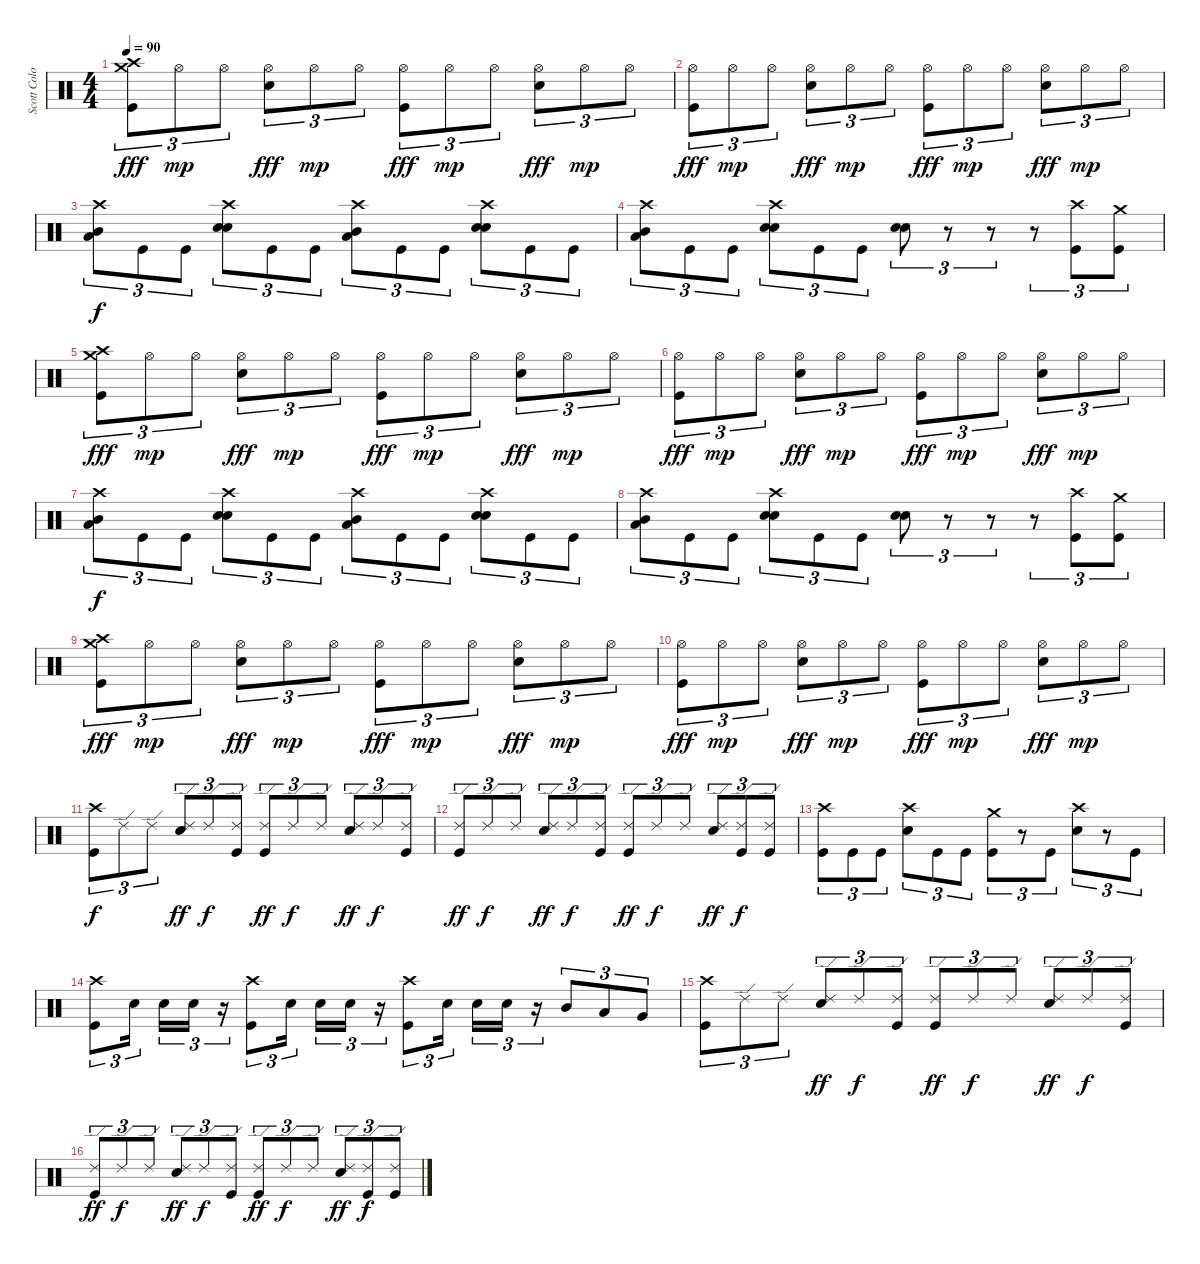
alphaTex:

\track ("Scott Colombus" "Scott Colo") {instrument percussion}
\staff {score}
\articulation defaults
\ts (4 4)
\tempo 90
\clef neutral
\ks c
("Crash high (hit)" "Crash medium (hit)" "Kick (hit)").8{tu (3 2) dy fff} "Hi-Hat (open)".8{tu (3 2) dy mp} "Hi-Hat (open)".8{tu (3 2)} ("Hi-Hat (open)" "Snare (hit) 2").8{tu (3 2) dy fff} "Hi-Hat (open)".8{tu (3 2) dy mp} "Hi-Hat (open)".8{tu (3 2)} ("Hi-Hat (open)" "Kick (hit)").8{tu (3 2) dy fff} "Hi-Hat (open)".8{tu (3 2) dy mp} "Hi-Hat (open)".8{tu (3 2)} ("Hi-Hat (open)" "Snare (hit) 2").8{tu (3 2) dy fff} "Hi-Hat (open)".8{tu (3 2) dy mp} "Hi-Hat (open)".8{tu (3 2)} |
("Hi-Hat (open)" "Kick (hit)").8{tu (3 2) dy fff} "Hi-Hat (open)".8{tu (3 2) dy mp} "Hi-Hat (open)".8{tu (3 2)} ("Hi-Hat (open)" "Snare (hit) 2").8{tu (3 2) dy fff} "Hi-Hat (open)".8{tu (3 2) dy mp} "Hi-Hat (open)".8{tu (3 2)} ("Hi-Hat (open)" "Kick (hit)").8{tu (3 2) dy fff} "Hi-Hat (open)".8{tu (3 2) dy mp} "Hi-Hat (open)".8{tu (3 2)} ("Hi-Hat (open)" "Snare (hit) 2").8{tu (3 2) dy fff} "Hi-Hat (open)".8{tu (3 2) dy mp} "Hi-Hat (open)".8{tu (3 2)} |
("Crash high (hit)" "Low Tom (hit)" "Mid Tom (hit)").8{tu (3 2) dy f} "Kick (hit)".8{tu (3 2)} "Kick (hit)".8{tu (3 2)} ("Crash high (hit)" "Snare (hit) 2" "Snare (hit) 2").8{tu (3 2)} "Kick (hit)".8{tu (3 2)} "Kick (hit)".8{tu (3 2)} ("Crash high (hit)" "Mid Tom (hit)" "Low Tom (hit)").8{tu (3 2)} "Kick (hit)".8{tu (3 2)} "Kick (hit)".8{tu (3 2)} ("Crash high (hit)" "Snare (hit) 2" "Snare (hit) 2").8{tu (3 2)} "Kick (hit)".8{tu (3 2)} "Kick (hit)".8{tu (3 2)} |
("Crash high (hit)" "Low Tom (hit)" "Mid Tom (hit)").8{tu (3 2)} "Kick (hit)".8{tu (3 2)} "Kick (hit)".8{tu (3 2)} ("Crash high (hit)" "Snare (hit) 2" "Snare (hit) 2").8{tu (3 2)} "Kick (hit)".8{tu (3 2)} "Kick (hit)".8{tu (3 2)} ("Snare (hit) 2" "Snare (hit) 2").8{tu (3 2)} r.8{tu (3 2)} r.8{tu (3 2)} r.8{tu (3 2)} ("Crash high (hit)" "Kick (hit)").8{tu (3 2)} ("Crash medium (hit)" "Kick (hit)").8{tu (3 2)} |
("Crash high (hit)" "Crash medium (hit)" "Kick (hit)").8{tu (3 2) dy fff} "Hi-Hat (open)".8{tu (3 2) dy mp} "Hi-Hat (open)".8{tu (3 2)} ("Hi-Hat (open)" "Snare (hit) 2").8{tu (3 2) dy fff} "Hi-Hat (open)".8{tu (3 2) dy mp} "Hi-Hat (open)".8{tu (3 2)} ("Hi-Hat (open)" "Kick (hit)").8{tu (3 2) dy fff} "Hi-Hat (open)".8{tu (3 2) dy mp} "Hi-Hat (open)".8{tu (3 2)} ("Hi-Hat (open)" "Snare (hit) 2").8{tu (3 2) dy fff} "Hi-Hat (open)".8{tu (3 2) dy mp} "Hi-Hat (open)".8{tu (3 2)} |
("Hi-Hat (open)" "Kick (hit)").8{tu (3 2) dy fff} "Hi-Hat (open)".8{tu (3 2) dy mp} "Hi-Hat (open)".8{tu (3 2)} ("Hi-Hat (open)" "Snare (hit) 2").8{tu (3 2) dy fff} "Hi-Hat (open)".8{tu (3 2) dy mp} "Hi-Hat (open)".8{tu (3 2)} ("Hi-Hat (open)" "Kick (hit)").8{tu (3 2) dy fff} "Hi-Hat (open)".8{tu (3 2) dy mp} "Hi-Hat (open)".8{tu (3 2)} ("Hi-Hat (open)" "Snare (hit) 2").8{tu (3 2) dy fff} "Hi-Hat (open)".8{tu (3 2) dy mp} "Hi-Hat (open)".8{tu (3 2)} |
("Crash high (hit)" "Low Tom (hit)" "Mid Tom (hit)").8{tu (3 2) dy f} "Kick (hit)".8{tu (3 2)} "Kick (hit)".8{tu (3 2)} ("Crash high (hit)" "Snare (hit) 2" "Snare (hit) 2").8{tu (3 2)} "Kick (hit)".8{tu (3 2)} "Kick (hit)".8{tu (3 2)} ("Crash high (hit)" "Mid Tom (hit)" "Low Tom (hit)").8{tu (3 2)} "Kick (hit)".8{tu (3 2)} "Kick (hit)".8{tu (3 2)} ("Crash high (hit)" "Snare (hit) 2" "Snare (hit) 2").8{tu (3 2)} "Kick (hit)".8{tu (3 2)} "Kick (hit)".8{tu (3 2)} |
("Crash high (hit)" "Low Tom (hit)" "Mid Tom (hit)").8{tu (3 2)} "Kick (hit)".8{tu (3 2)} "Kick (hit)".8{tu (3 2)} ("Crash high (hit)" "Snare (hit) 2" "Snare (hit) 2").8{tu (3 2)} "Kick (hit)".8{tu (3 2)} "Kick (hit)".8{tu (3 2)} ("Snare (hit) 2" "Snare (hit) 2").8{tu (3 2)} r.8{tu (3 2)} r.8{tu (3 2)} r.8{tu (3 2)} ("Crash high (hit)" "Kick (hit)").8{tu (3 2)} ("Crash medium (hit)" "Kick (hit)").8{tu (3 2)} |
("Crash high (hit)" "Crash medium (hit)" "Kick (hit)").8{tu (3 2) dy fff} "Hi-Hat (open)".8{tu (3 2) dy mp} "Hi-Hat (open)".8{tu (3 2)} ("Hi-Hat (open)" "Snare (hit) 2").8{tu (3 2) dy fff} "Hi-Hat (open)".8{tu (3 2) dy mp} "Hi-Hat (open)".8{tu (3 2)} ("Hi-Hat (open)" "Kick (hit)").8{tu (3 2) dy fff} "Hi-Hat (open)".8{tu (3 2) dy mp} "Hi-Hat (open)".8{tu (3 2)} ("Hi-Hat (open)" "Snare (hit) 2").8{tu (3 2) dy fff} "Hi-Hat (open)".8{tu (3 2) dy mp} "Hi-Hat (open)".8{tu (3 2)} |
("Hi-Hat (open)" "Kick (hit)").8{tu (3 2) dy fff} "Hi-Hat (open)".8{tu (3 2) dy mp} "Hi-Hat (open)".8{tu (3 2)} ("Hi-Hat (open)" "Snare (hit) 2").8{tu (3 2) dy fff} "Hi-Hat (open)".8{tu (3 2) dy mp} "Hi-Hat (open)".8{tu (3 2)} ("Hi-Hat (open)" "Kick (hit)").8{tu (3 2) dy fff} "Hi-Hat (open)".8{tu (3 2) dy mp} "Hi-Hat (open)".8{tu (3 2)} ("Hi-Hat (open)" "Snare (hit) 2").8{tu (3 2) dy fff} "Hi-Hat (open)".8{tu (3 2) dy mp} "Hi-Hat (open)".8{tu (3 2)} |
("Crash high (hit)" "Kick (hit)").8{tu (3 2) dy f} "Ride (edge) 2".8{tu (3 2)} "Ride (edge) 2".8{tu (3 2)} ("Ride (edge) 2" "Snare (hit) 2").8{tu (3 2) dy ff} "Ride (edge) 2".8{tu (3 2) dy f} ("Ride (edge) 2" "Kick (hit)").8{tu (3 2)} ("Ride (edge) 2" "Kick (hit)").8{tu (3 2) dy ff} "Ride (edge) 2".8{tu (3 2) dy f} "Ride (edge) 2".8{tu (3 2)} ("Ride (edge) 2" "Snare (hit) 2").8{tu (3 2) dy ff} "Ride (edge) 2".8{tu (3 2) dy f} ("Ride (edge) 2" "Kick (hit)").8{tu (3 2)} |
("Ride (edge) 2" "Kick (hit)").8{tu (3 2) dy ff} "Ride (edge) 2".8{tu (3 2) dy f} "Ride (edge) 2".8{tu (3 2)} ("Ride (edge) 2" "Snare (hit) 2").8{tu (3 2) dy ff} "Ride (edge) 2".8{tu (3 2) dy f} ("Ride (edge) 2" "Kick (hit)").8{tu (3 2)} ("Ride (edge) 2" "Kick (hit)").8{tu (3 2) dy ff} "Ride (edge) 2".8{tu (3 2) dy f} "Ride (edge) 2".8{tu (3 2)} ("Ride (edge) 2" "Snare (hit) 2").8{tu (3 2) dy ff} ("Ride (edge) 2" "Kick (hit)").8{tu (3 2) dy f} ("Ride (edge) 2" "Kick (hit)").8{tu (3 2)} |
("Crash high (hit)" "Kick (hit)").8{tu (3 2)} "Kick (hit)".8{tu (3 2)} "Kick (hit)".8{tu (3 2)} ("Crash high (hit)" "Snare (hit) 2").8{tu (3 2)} "Kick (hit)".8{tu (3 2)} "Kick (hit)".8{tu (3 2)} ("Crash medium (hit)" "Kick (hit)").8{tu (3 2)} r.8{tu (3 2)} "Kick (hit)".8{tu (3 2)} ("Crash high (hit)" "Snare (hit) 2").8{tu (3 2)} r.8{tu (3 2)} "Kick (hit)".8{tu (3 2)} |
("Crash high (hit)" "Kick (hit)").8{tu (3 2)} "Snare (hit) 2".16{tu (3 2)} "Snare (hit) 2".16{tu (3 2)} "Snare (hit) 2".16{tu (3 2)} r.16{tu (3 2)} ("Crash high (hit)" "Kick (hit)").8{tu (3 2)} "Snare (hit) 2".16{tu (3 2)} "Snare (hit) 2".16{tu (3 2)} "Snare (hit) 2".16{tu (3 2)} r.16{tu (3 2)} ("Crash high (hit)" "Kick (hit)").8{tu (3 2)} "Snare (hit) 2".16{tu (3 2)} "Snare (hit) 2".16{tu (3 2)} "Snare (hit) 2".16{tu (3 2)} r.16{tu (3 2)} "Mid Tom (hit)".8{tu (3 2)} "Low Tom (hit)".8{tu (3 2)} "Very Low Tom (hit)".8{tu (3 2)} |
("Crash high (hit)" "Kick (hit)").8{tu (3 2)} "Ride (edge) 2".8{tu (3 2)} "Ride (edge) 2".8{tu (3 2)} ("Ride (edge) 2" "Snare (hit) 2").8{tu (3 2) dy ff} "Ride (edge) 2".8{tu (3 2) dy f} ("Ride (edge) 2" "Kick (hit)").8{tu (3 2)} ("Ride (edge) 2" "Kick (hit)").8{tu (3 2) dy ff} "Ride (edge) 2".8{tu (3 2) dy f} "Ride (edge) 2".8{tu (3 2)} ("Ride (edge) 2" "Snare (hit) 2").8{tu (3 2) dy ff} "Ride (edge) 2".8{tu (3 2) dy f} ("Ride (edge) 2" "Kick (hit)").8{tu (3 2)} |
("Ride (edge) 2" "Kick (hit)").8{tu (3 2) dy ff} "Ride (edge) 2".8{tu (3 2) dy f} "Ride (edge) 2".8{tu (3 2)} ("Ride (edge) 2" "Snare (hit) 2").8{tu (3 2) dy ff} "Ride (edge) 2".8{tu (3 2) dy f} ("Ride (edge) 2" "Kick (hit)").8{tu (3 2)} ("Ride (edge) 2" "Kick (hit)").8{tu (3 2) dy ff} "Ride (edge) 2".8{tu (3 2) dy f} "Ride (edge) 2".8{tu (3 2)} ("Ride (edge) 2" "Snare (hit) 2").8{tu (3 2) dy ff} ("Ride (edge) 2" "Kick (hit)").8{tu (3 2) dy f} ("Ride (edge) 2" "Kick (hit)").8{tu (3 2)}
